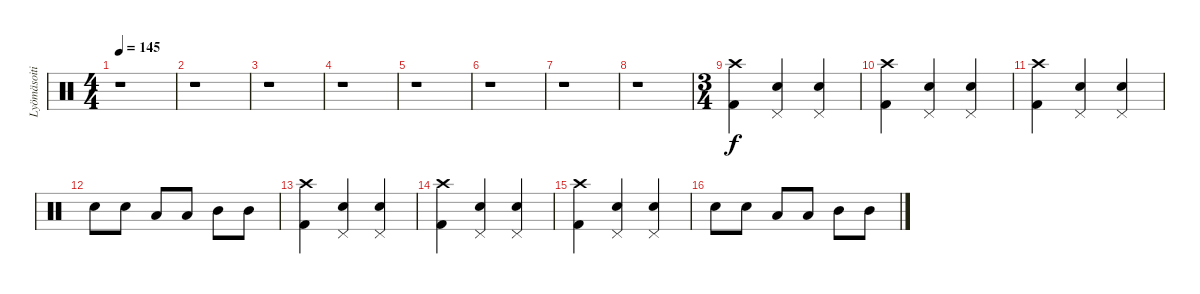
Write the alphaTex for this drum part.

\track ("Lyömäsoitin" "Lyömäsoiti") {instrument percussion}
\staff {score}
\articulation defaults
\ts (4 4)
\tempo 145
\clef neutral
\ks c
r.1{dy f} |
r.1 |
r.1 |
r.1 |
r.1 |
r.1 |
r.1 |
r.1 |
\ts (3 4)
("Crash high (hit)" "Kick (hit) 2").4 ("Pedal Hi-Hat (hit)" "Snare (hit) 2").4 ("Pedal Hi-Hat (hit)" "Snare (hit) 2").4 |
("Crash high (hit)" "Kick (hit) 2").4 ("Pedal Hi-Hat (hit)" "Snare (hit) 2").4 ("Pedal Hi-Hat (hit)" "Snare (hit) 2").4 |
("Crash high (hit)" "Kick (hit) 2").4 ("Pedal Hi-Hat (hit)" "Snare (hit) 2").4 ("Pedal Hi-Hat (hit)" "Snare (hit) 2").4 |
"Snare (hit) 2".8 "Snare (hit) 2".8 "Low Tom (hit)".8 "Low Tom (hit)".8 "Mid Tom (hit)".8 "Mid Tom (hit)".8 |
("Crash high (hit)" "Kick (hit) 2").4 ("Pedal Hi-Hat (hit)" "Snare (hit) 2").4 ("Pedal Hi-Hat (hit)" "Snare (hit) 2").4 |
("Crash high (hit)" "Kick (hit) 2").4 ("Pedal Hi-Hat (hit)" "Snare (hit) 2").4 ("Pedal Hi-Hat (hit)" "Snare (hit) 2").4 |
("Crash high (hit)" "Kick (hit) 2").4 ("Pedal Hi-Hat (hit)" "Snare (hit) 2").4 ("Pedal Hi-Hat (hit)" "Snare (hit) 2").4 |
"Snare (hit) 2".8 "Snare (hit) 2".8 "Low Tom (hit)".8 "Low Tom (hit)".8 "Mid Tom (hit)".8 "Mid Tom (hit)".8
